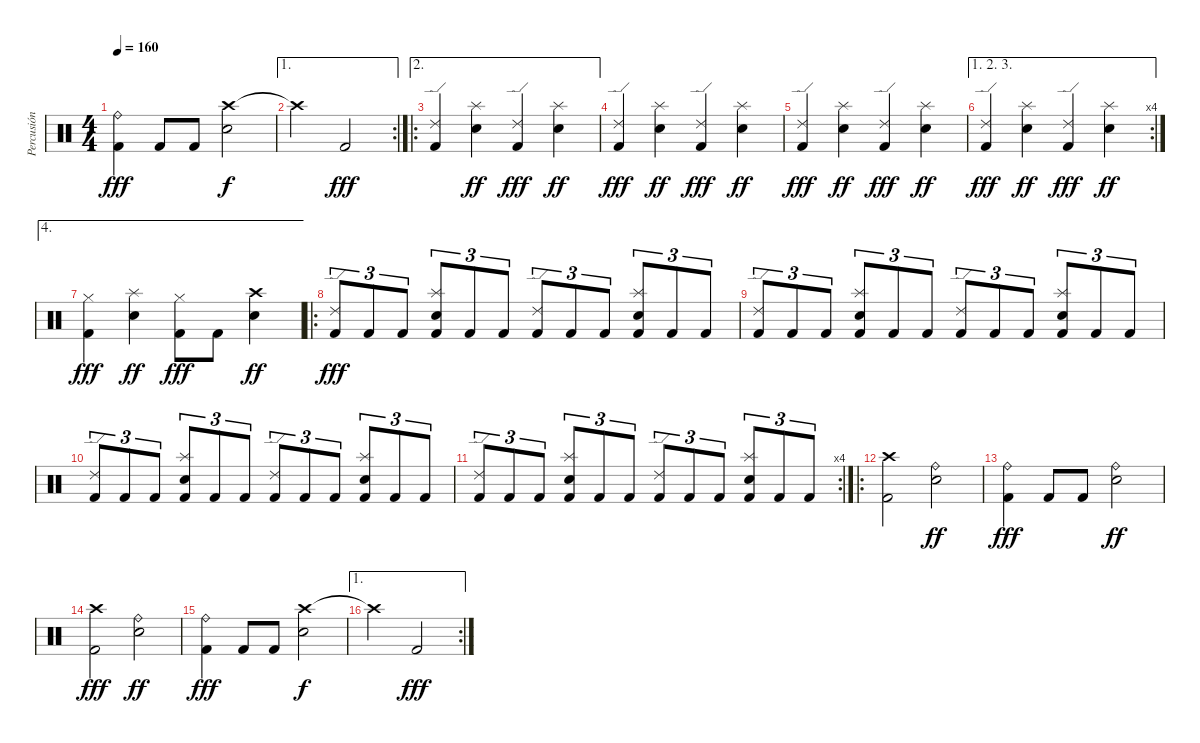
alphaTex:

\track ("Percusión" "Percusión") {instrument percussion}
\staff {score}
\articulation defaults
\ts (4 4)
\tempo 160
\clef neutral
\ks c
("Ride (bell)" "Kick (hit) 2").4{dy fff} "Kick (hit) 2".8 "Kick (hit) 2".8 ("Crash high (hit)" "Snare (hit) 2").2{dy f} |
\ae 1
\rc 2 "Crash high (hit)"{t}.2 "Kick (hit) 2".2{dy fff}
|
\ae 2
\ro
("Ride (edge) 2" "Kick (hit) 2").4 ("Splash (hit)" "Electric Snare (hit)").4{dy ff} ("Ride (edge) 2" "Kick (hit) 2").4{dy fff} ("Splash (hit)" "Electric Snare (hit)").4{dy ff} |
("Ride (edge) 2" "Kick (hit) 2").4{dy fff} ("Splash (hit)" "Electric Snare (hit)").4{dy ff} ("Ride (edge) 2" "Kick (hit) 2").4{dy fff} ("Splash (hit)" "Electric Snare (hit)").4{dy ff} |
("Ride (edge) 2" "Kick (hit) 2").4{dy fff} ("Splash (hit)" "Electric Snare (hit)").4{dy ff} ("Ride (edge) 2" "Kick (hit) 2").4{dy fff} ("Splash (hit)" "Electric Snare (hit)").4{dy ff} |
\ae (1 2 3)
\rc 4
("Ride (edge) 2" "Kick (hit) 2").4{dy fff} ("Splash (hit)" "Electric Snare (hit)").4{dy ff} ("Ride (edge) 2" "Kick (hit) 2").4{dy fff} ("Splash (hit)" "Electric Snare (hit)").4{dy ff} |
\ae 4
("Hi-Hat (closed)" "Kick (hit) 2").4{dy fff} ("Splash (hit)" "Electric Snare (hit)").4{dy ff} ("Hi-Hat (closed)" "Kick (hit) 2").8{dy fff} "Kick (hit) 2".8 ("Crash high (hit)" "Electric Snare (hit)").4{dy ff} |
\ro
("Ride (edge) 2" "Kick (hit) 2").8{tu (3 2) dy fff} "Kick (hit) 2".8{tu (3 2)} "Kick (hit) 2".8{tu (3 2)} ("Splash (hit)" "Electric Snare (hit)" "Kick (hit) 2").8{tu (3 2)} "Kick (hit) 2".8{tu (3 2)} "Kick (hit) 2".8{tu (3 2)} ("Ride (edge) 2" "Kick (hit) 2").8{tu (3 2)} "Kick (hit) 2".8{tu (3 2)} "Kick (hit) 2".8{tu (3 2)} ("Splash (hit)" "Electric Snare (hit)" "Kick (hit) 2").8{tu (3 2)} "Kick (hit) 2".8{tu (3 2)} "Kick (hit) 2".8{tu (3 2)} |
("Ride (edge) 2" "Kick (hit) 2").8{tu (3 2)} "Kick (hit) 2".8{tu (3 2)} "Kick (hit) 2".8{tu (3 2)} ("Splash (hit)" "Electric Snare (hit)" "Kick (hit) 2").8{tu (3 2)} "Kick (hit) 2".8{tu (3 2)} "Kick (hit) 2".8{tu (3 2)} ("Ride (edge) 2" "Kick (hit) 2").8{tu (3 2)} "Kick (hit) 2".8{tu (3 2)} "Kick (hit) 2".8{tu (3 2)} ("Splash (hit)" "Electric Snare (hit)" "Kick (hit) 2").8{tu (3 2)} "Kick (hit) 2".8{tu (3 2)} "Kick (hit) 2".8{tu (3 2)} |
("Ride (edge) 2" "Kick (hit) 2").8{tu (3 2)} "Kick (hit) 2".8{tu (3 2)} "Kick (hit) 2".8{tu (3 2)} ("Splash (hit)" "Electric Snare (hit)" "Kick (hit) 2").8{tu (3 2)} "Kick (hit) 2".8{tu (3 2)} "Kick (hit) 2".8{tu (3 2)} ("Ride (edge) 2" "Kick (hit) 2").8{tu (3 2)} "Kick (hit) 2".8{tu (3 2)} "Kick (hit) 2".8{tu (3 2)} ("Splash (hit)" "Electric Snare (hit)" "Kick (hit) 2").8{tu (3 2)} "Kick (hit) 2".8{tu (3 2)} "Kick (hit) 2".8{tu (3 2)} |
\rc 4
("Ride (edge) 2" "Kick (hit) 2").8{tu (3 2)} "Kick (hit) 2".8{tu (3 2)} "Kick (hit) 2".8{tu (3 2)} ("Splash (hit)" "Electric Snare (hit)" "Kick (hit) 2").8{tu (3 2)} "Kick (hit) 2".8{tu (3 2)} "Kick (hit) 2".8{tu (3 2)} ("Ride (edge) 2" "Kick (hit) 2").8{tu (3 2)} "Kick (hit) 2".8{tu (3 2)} "Kick (hit) 2".8{tu (3 2)} ("Splash (hit)" "Electric Snare (hit)" "Kick (hit) 2").8{tu (3 2)} "Kick (hit) 2".8{tu (3 2)} "Kick (hit) 2".8{tu (3 2)} |
\ro
("Crash high (hit)" "Kick (hit) 2").2 ("Ride (bell)" "Snare (hit) 2").2{dy ff} |
("Ride (bell)" "Kick (hit) 2").4{dy fff} "Kick (hit) 2".8 "Kick (hit) 2".8 ("Ride (bell)" "Snare (hit) 2").2{dy ff} |
("Crash high (hit)" "Kick (hit) 2").2{dy fff} ("Ride (bell)" "Snare (hit) 2").2{dy ff} |
("Ride (bell)" "Kick (hit) 2").4{dy fff} "Kick (hit) 2".8 "Kick (hit) 2".8 ("Crash high (hit)" "Snare (hit) 2").2{dy f} |
\ae 1
\rc 2 "Crash high (hit)"{t}.2 "Kick (hit) 2".2{dy fff}
